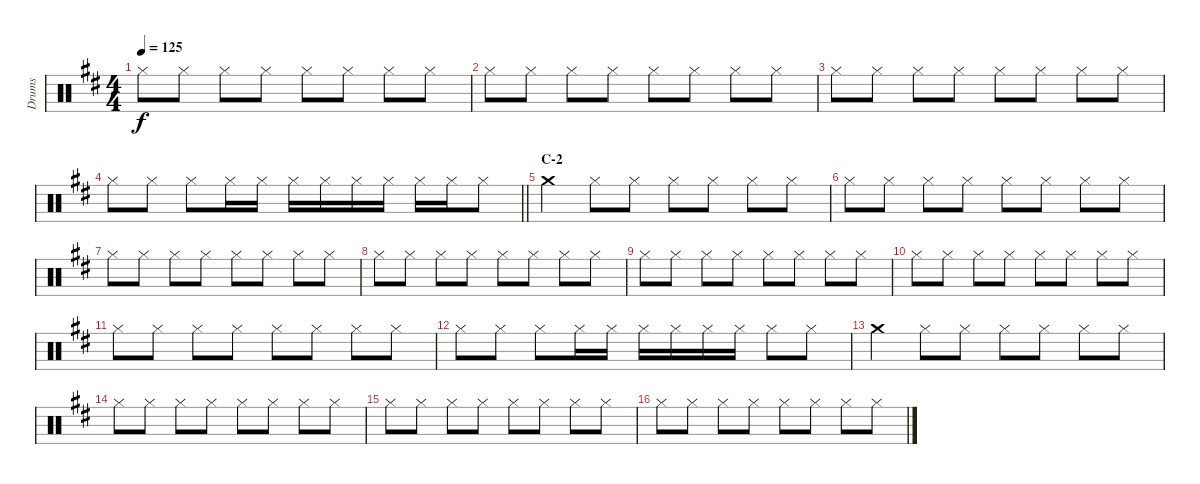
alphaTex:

\track ("Drums" "Drums") {instrument percussion}
\staff {score}
\articulation defaults
\ts (4 4)
\tempo 125
\clef neutral
\ks d "Hi-Hat (closed)".8{dy f} "Hi-Hat (closed)".8 "Hi-Hat (closed)".8 "Hi-Hat (closed)".8 "Hi-Hat (closed)".8 "Hi-Hat (closed)".8 "Hi-Hat (closed)".8 "Hi-Hat (closed)".8
|
"Hi-Hat (closed)".8 "Hi-Hat (closed)".8 "Hi-Hat (closed)".8 "Hi-Hat (closed)".8 "Hi-Hat (closed)".8 "Hi-Hat (closed)".8 "Hi-Hat (closed)".8 "Hi-Hat (closed)".8 |
"Hi-Hat (closed)".8 "Hi-Hat (closed)".8 "Hi-Hat (closed)".8 "Hi-Hat (closed)".8 "Hi-Hat (closed)".8 "Hi-Hat (closed)".8 "Hi-Hat (closed)".8 "Hi-Hat (closed)".8 |
\barLineRight lightlight "Hi-Hat (closed)".8 "Hi-Hat (closed)".8 "Hi-Hat (closed)".8 "Hi-Hat (closed)".16 "Hi-Hat (closed)".16 "Hi-Hat (closed)".16 "Hi-Hat (closed)".16 "Hi-Hat (closed)".16 "Hi-Hat (closed)".16 "Hi-Hat (closed)".16 "Hi-Hat (closed)".16 "Hi-Hat (closed)".8
|
\section ("" "C-2")
"Crash medium (hit)".4 "Hi-Hat (closed)".8 "Hi-Hat (closed)".8 "Hi-Hat (closed)".8 "Hi-Hat (closed)".8 "Hi-Hat (closed)".8 "Hi-Hat (closed)".8 |
"Hi-Hat (closed)".8 "Hi-Hat (closed)".8 "Hi-Hat (closed)".8 "Hi-Hat (closed)".8 "Hi-Hat (closed)".8 "Hi-Hat (closed)".8 "Hi-Hat (closed)".8 "Hi-Hat (closed)".8 |
"Hi-Hat (closed)".8 "Hi-Hat (closed)".8 "Hi-Hat (closed)".8 "Hi-Hat (closed)".8 "Hi-Hat (closed)".8 "Hi-Hat (closed)".8 "Hi-Hat (closed)".8 "Hi-Hat (closed)".8 |
"Hi-Hat (closed)".8 "Hi-Hat (closed)".8 "Hi-Hat (closed)".8 "Hi-Hat (closed)".8 "Hi-Hat (closed)".8 "Hi-Hat (closed)".8 "Hi-Hat (closed)".8 "Hi-Hat (closed)".8 |
"Hi-Hat (closed)".8 "Hi-Hat (closed)".8 "Hi-Hat (closed)".8 "Hi-Hat (closed)".8 "Hi-Hat (closed)".8 "Hi-Hat (closed)".8 "Hi-Hat (closed)".8 "Hi-Hat (closed)".8 |
"Hi-Hat (closed)".8 "Hi-Hat (closed)".8 "Hi-Hat (closed)".8 "Hi-Hat (closed)".8 "Hi-Hat (closed)".8 "Hi-Hat (closed)".8 "Hi-Hat (closed)".8 "Hi-Hat (closed)".8 |
"Hi-Hat (closed)".8 "Hi-Hat (closed)".8 "Hi-Hat (closed)".8 "Hi-Hat (closed)".8 "Hi-Hat (closed)".8 "Hi-Hat (closed)".8 "Hi-Hat (closed)".8 "Hi-Hat (closed)".8 |
"Hi-Hat (closed)".8 "Hi-Hat (closed)".8 "Hi-Hat (closed)".8 "Hi-Hat (closed)".16 "Hi-Hat (closed)".16 "Hi-Hat (closed)".16 "Hi-Hat (closed)".16 "Hi-Hat (closed)".16 "Hi-Hat (closed)".16 "Hi-Hat (closed)".8 "Hi-Hat (closed)".8 |
"Crash medium (hit)".4 "Hi-Hat (closed)".8 "Hi-Hat (closed)".8 "Hi-Hat (closed)".8 "Hi-Hat (closed)".8 "Hi-Hat (closed)".8 "Hi-Hat (closed)".8 |
"Hi-Hat (closed)".8 "Hi-Hat (closed)".8 "Hi-Hat (closed)".8 "Hi-Hat (closed)".8 "Hi-Hat (closed)".8 "Hi-Hat (closed)".8 "Hi-Hat (closed)".8 "Hi-Hat (closed)".8 |
"Hi-Hat (closed)".8 "Hi-Hat (closed)".8 "Hi-Hat (closed)".8 "Hi-Hat (closed)".8 "Hi-Hat (closed)".8 "Hi-Hat (closed)".8 "Hi-Hat (closed)".8 "Hi-Hat (closed)".8 |
"Hi-Hat (closed)".8 "Hi-Hat (closed)".8 "Hi-Hat (closed)".8 "Hi-Hat (closed)".8 "Hi-Hat (closed)".8 "Hi-Hat (closed)".8 "Hi-Hat (closed)".8 "Hi-Hat (closed)".8
